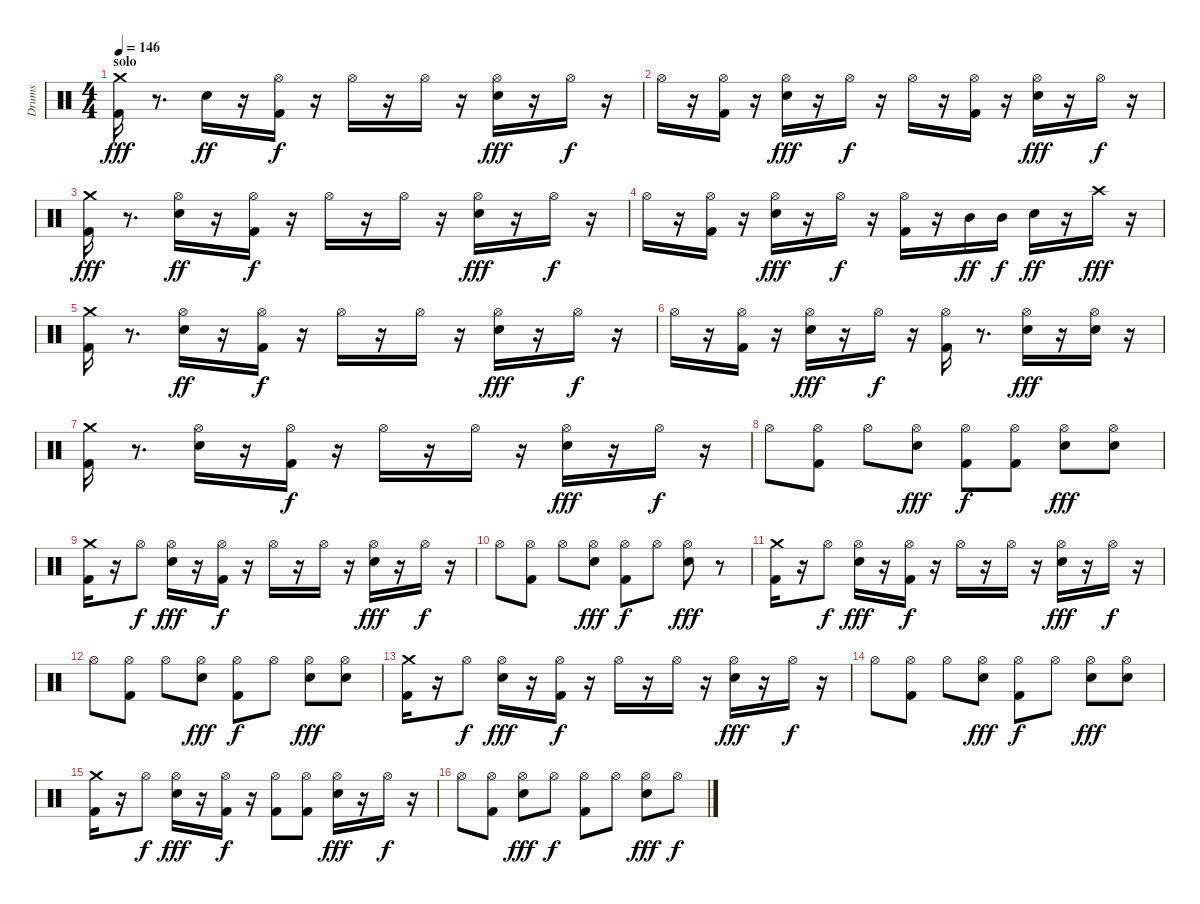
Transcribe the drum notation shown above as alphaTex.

\track ("Drums" "Drums") {instrument percussion}
\staff {score}
\articulation defaults
\ts (4 4)
\section ("" "solo")
\tempo 146
\clef neutral
\ks c
("Kick (hit) 2" "Crash medium (hit)").16{dy fff} r.8{d} "Snare (hit) 2".16{dy ff} r.16 ("Kick (hit) 2" "Hi-Hat (open)").16{dy f} r.16 "Hi-Hat (open)".16 r.16 "Hi-Hat (open)".16 r.16 ("Snare (hit) 2" "Hi-Hat (open)").16{dy fff} r.16 "Hi-Hat (open)".16{dy f} r.16 |
"Hi-Hat (open)".16 r.16 ("Kick (hit) 2" "Hi-Hat (open)").16 r.16 ("Snare (hit) 2" "Hi-Hat (open)").16{dy fff} r.16 "Hi-Hat (open)".16{dy f} r.16 "Hi-Hat (open)".16 r.16 ("Kick (hit) 2" "Hi-Hat (open)").16 r.16 ("Snare (hit) 2" "Hi-Hat (open)").16{dy fff} r.16 "Hi-Hat (open)".16{dy f} r.16 |
("Kick (hit) 2" "Crash medium (hit)").16{dy fff} r.8{d} ("Hi-Hat (open)" "Snare (hit) 2").16{dy ff} r.16 ("Kick (hit) 2" "Hi-Hat (open)").16{dy f} r.16 "Hi-Hat (open)".16 r.16 "Hi-Hat (open)".16 r.16 ("Snare (hit) 2" "Hi-Hat (open)").16{dy fff} r.16 "Hi-Hat (open)".16{dy f} r.16 |
"Hi-Hat (open)".16 r.16 ("Kick (hit) 2" "Hi-Hat (open)").16 r.16 ("Snare (hit) 2" "Hi-Hat (open)").16{dy fff} r.16 "Hi-Hat (open)".16{dy f} r.16 ("Kick (hit) 2" "Hi-Hat (open)").16 r.16 "Mid Tom (hit)".16{dy ff} "Mid Tom (hit)".16{dy f} "Snare (hit) 2".16{dy ff} r.16 "Crash high (hit)".16{dy fff} r.16 |
("Kick (hit) 2" "Crash medium (hit)").16 r.8{d} ("Hi-Hat (open)" "Snare (hit) 2").16{dy ff} r.16 ("Kick (hit) 2" "Hi-Hat (open)").16{dy f} r.16 "Hi-Hat (open)".16 r.16 "Hi-Hat (open)".16 r.16 ("Snare (hit) 2" "Hi-Hat (open)").16{dy fff} r.16 "Hi-Hat (open)".16{dy f} r.16 |
"Hi-Hat (open)".16 r.16 ("Kick (hit) 2" "Hi-Hat (open)").16 r.16 ("Snare (hit) 2" "Hi-Hat (open)").16{dy fff} r.16 "Hi-Hat (open)".16{dy f} r.16 ("Kick (hit) 2" "Hi-Hat (open)").16 r.8{d} ("Snare (hit) 2" "Hi-Hat (open)").16{dy fff} r.16 ("Snare (hit) 2" "Hi-Hat (open)").16 r.16 |
("Kick (hit) 2" "Crash medium (hit)").16 r.8{d} ("Snare (hit) 2" "Hi-Hat (open)").16 r.16 ("Kick (hit) 2" "Hi-Hat (open)").16{dy f} r.16 "Hi-Hat (open)".16 r.16 "Hi-Hat (open)".16 r.16 ("Snare (hit) 2" "Hi-Hat (open)").16{dy fff} r.16 "Hi-Hat (open)".16{dy f} r.16 |
"Hi-Hat (open)".8 ("Kick (hit) 2" "Hi-Hat (open)").8 "Hi-Hat (open)".8 ("Snare (hit) 2" "Hi-Hat (open)").8{dy fff} ("Kick (hit) 2" "Hi-Hat (open)").8{dy f} ("Kick (hit) 2" "Hi-Hat (open)").8 ("Snare (hit) 2" "Hi-Hat (open)").8{dy fff} ("Snare (hit) 2" "Hi-Hat (open)").8 |
("Kick (hit) 2" "Crash medium (hit)").16 r.16 "Hi-Hat (open)".8{dy f} ("Snare (hit) 2" "Hi-Hat (open)").16{dy fff} r.16 ("Kick (hit) 2" "Hi-Hat (open)").16{dy f} r.16 "Hi-Hat (open)".16 r.16 "Hi-Hat (open)".16 r.16 ("Snare (hit) 2" "Hi-Hat (open)").16{dy fff} r.16 "Hi-Hat (open)".16{dy f} r.16 |
"Hi-Hat (open)".8 ("Kick (hit) 2" "Hi-Hat (open)").8 "Hi-Hat (open)".8 ("Snare (hit) 2" "Hi-Hat (open)").8{dy fff} ("Kick (hit) 2" "Hi-Hat (open)").8{dy f} "Hi-Hat (open)".8 ("Snare (hit) 2" "Hi-Hat (open)").8{dy fff} r.8 |
("Kick (hit) 2" "Crash medium (hit)").16 r.16 "Hi-Hat (open)".8{dy f} ("Snare (hit) 2" "Hi-Hat (open)").16{dy fff} r.16 ("Kick (hit) 2" "Hi-Hat (open)").16{dy f} r.16 "Hi-Hat (open)".16 r.16 "Hi-Hat (open)".16 r.16 ("Snare (hit) 2" "Hi-Hat (open)").16{dy fff} r.16 "Hi-Hat (open)".16{dy f} r.16 |
"Hi-Hat (open)".8 ("Kick (hit) 2" "Hi-Hat (open)").8 "Hi-Hat (open)".8 ("Snare (hit) 2" "Hi-Hat (open)").8{dy fff} ("Kick (hit) 2" "Hi-Hat (open)").8{dy f} "Hi-Hat (open)".8 ("Snare (hit) 2" "Hi-Hat (open)").8{dy fff} ("Snare (hit) 2" "Hi-Hat (open)").8 |
("Kick (hit) 2" "Crash medium (hit)").16 r.16 "Hi-Hat (open)".8{dy f} ("Snare (hit) 2" "Hi-Hat (open)").16{dy fff} r.16 ("Kick (hit) 2" "Hi-Hat (open)").16{dy f} r.16 "Hi-Hat (open)".16 r.16 "Hi-Hat (open)".16 r.16 ("Snare (hit) 2" "Hi-Hat (open)").16{dy fff} r.16 "Hi-Hat (open)".16{dy f} r.16 |
"Hi-Hat (open)".8 ("Kick (hit) 2" "Hi-Hat (open)").8 "Hi-Hat (open)".8 ("Snare (hit) 2" "Hi-Hat (open)").8{dy fff} ("Kick (hit) 2" "Hi-Hat (open)").8{dy f} "Hi-Hat (open)".8 ("Snare (hit) 2" "Hi-Hat (open)").8{dy fff} ("Snare (hit) 2" "Hi-Hat (open)").8 |
("Kick (hit) 2" "Crash medium (hit)").16 r.16 "Hi-Hat (open)".8{dy f} ("Snare (hit) 2" "Hi-Hat (open)").16{dy fff} r.16 ("Kick (hit) 2" "Hi-Hat (open)").16{dy f} r.16 ("Kick (hit) 2" "Hi-Hat (open)").8 ("Kick (hit) 2" "Hi-Hat (open)").8 ("Snare (hit) 2" "Hi-Hat (open)").16{dy fff} r.16 "Hi-Hat (open)".16{dy f} r.16 |
"Hi-Hat (open)".8 ("Kick (hit) 2" "Hi-Hat (open)").8 ("Snare (hit) 2" "Hi-Hat (open)").8{dy fff} "Hi-Hat (open)".8{dy f} ("Kick (hit) 2" "Hi-Hat (open)").8 "Hi-Hat (open)".8 ("Snare (hit) 2" "Hi-Hat (open)").8{dy fff} "Hi-Hat (open)".8{dy f}
